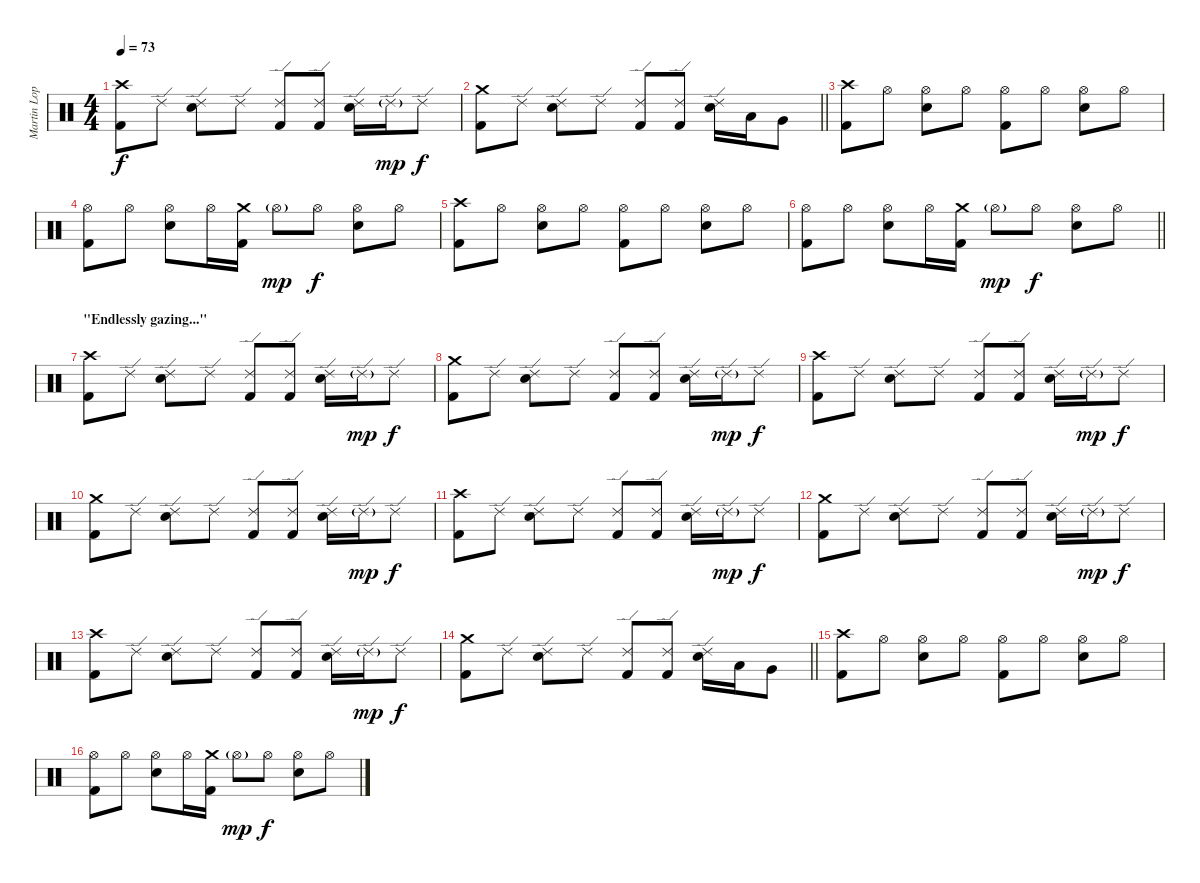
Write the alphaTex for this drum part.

\track ("Martin Lopez" "Martin Lop") {instrument percussion}
\staff {score}
\articulation defaults
\ts (4 4)
\tempo 73
\clef neutral
\ks c
("Crash high (hit)" "Kick (hit) 2").8{dy f} "Ride (edge) 2".8 ("Ride (edge) 2" "Electric Snare (hit)").8 "Ride (edge) 2".8 ("Ride (edge) 2" "Kick (hit) 2").8 ("Ride (edge) 2" "Kick (hit) 2").8 ("Ride (edge) 2" "Electric Snare (hit)").16 "Ride (edge) 2"{g}.16{dy mp} "Ride (edge) 2".8{dy f} |
\barLineRight lightlight
("Crash medium (hit)" "Kick (hit) 2").8 "Ride (edge) 2".8 ("Ride (edge) 2" "Electric Snare (hit)").8 "Ride (edge) 2".8 ("Ride (edge) 2" "Kick (hit) 2").8 ("Ride (edge) 2" "Kick (hit) 2").8 ("Ride (edge) 2" "Electric Snare (hit)").16 "Low Tom (hit)".16 "Very Low Tom (hit)".8 |
\section ("" "")
("Crash high (hit)" "Kick (hit) 2").8 "Hi-Hat (open)".8 ("Hi-Hat (open)" "Electric Snare (hit)").8 "Hi-Hat (open)".8 ("Hi-Hat (open)" "Kick (hit) 2").8 "Hi-Hat (open)".8 ("Hi-Hat (open)" "Electric Snare (hit)").8 "Hi-Hat (open)".8 |
("Hi-Hat (open)" "Kick (hit) 2").8 "Hi-Hat (open)".8 ("Hi-Hat (open)" "Electric Snare (hit)").8 "Hi-Hat (open)".16 ("Crash medium (hit)" "Kick (hit) 2").16 "Hi-Hat (open)"{g}.8{dy mp} "Hi-Hat (open)".8{dy f} ("Hi-Hat (open)" "Electric Snare (hit)").8 "Hi-Hat (open)".8 |
("Crash high (hit)" "Kick (hit) 2").8 "Hi-Hat (open)".8 ("Hi-Hat (open)" "Electric Snare (hit)").8 "Hi-Hat (open)".8 ("Hi-Hat (open)" "Kick (hit) 2").8 "Hi-Hat (open)".8 ("Hi-Hat (open)" "Electric Snare (hit)").8 "Hi-Hat (open)".8 |
\barLineRight lightlight
("Hi-Hat (open)" "Kick (hit) 2").8 "Hi-Hat (open)".8 ("Hi-Hat (open)" "Electric Snare (hit)").8 "Hi-Hat (open)".16 ("Crash medium (hit)" "Kick (hit) 2").16 "Hi-Hat (open)"{g}.8{dy mp} "Hi-Hat (open)".8{dy f} ("Hi-Hat (open)" "Electric Snare (hit)").8 "Hi-Hat (open)".8 |
\section ("" "\"Endlessly gazing...\"")
("Crash high (hit)" "Kick (hit) 2").8 "Ride (edge) 2".8 ("Ride (edge) 2" "Electric Snare (hit)").8 "Ride (edge) 2".8 ("Ride (edge) 2" "Kick (hit) 2").8 ("Ride (edge) 2" "Kick (hit) 2").8 ("Ride (edge) 2" "Electric Snare (hit)").16 "Ride (edge) 2"{g}.16{dy mp} "Ride (edge) 2".8{dy f} |
("Crash medium (hit)" "Kick (hit) 2").8 "Ride (edge) 2".8 ("Ride (edge) 2" "Electric Snare (hit)").8 "Ride (edge) 2".8 ("Ride (edge) 2" "Kick (hit) 2").8 ("Ride (edge) 2" "Kick (hit) 2").8 ("Ride (edge) 2" "Electric Snare (hit)").16 "Ride (edge) 2"{g}.16{dy mp} "Ride (edge) 2".8{dy f} |
("Crash high (hit)" "Kick (hit) 2").8 "Ride (edge) 2".8 ("Ride (edge) 2" "Electric Snare (hit)").8 "Ride (edge) 2".8 ("Ride (edge) 2" "Kick (hit) 2").8 ("Ride (edge) 2" "Kick (hit) 2").8 ("Ride (edge) 2" "Electric Snare (hit)").16 "Ride (edge) 2"{g}.16{dy mp} "Ride (edge) 2".8{dy f} |
("Crash medium (hit)" "Kick (hit) 2").8 "Ride (edge) 2".8 ("Ride (edge) 2" "Electric Snare (hit)").8 "Ride (edge) 2".8 ("Ride (edge) 2" "Kick (hit) 2").8 ("Ride (edge) 2" "Kick (hit) 2").8 ("Ride (edge) 2" "Electric Snare (hit)").16 "Ride (edge) 2"{g}.16{dy mp} "Ride (edge) 2".8{dy f} |
("Crash high (hit)" "Kick (hit) 2").8 "Ride (edge) 2".8 ("Ride (edge) 2" "Electric Snare (hit)").8 "Ride (edge) 2".8 ("Ride (edge) 2" "Kick (hit) 2").8 ("Ride (edge) 2" "Kick (hit) 2").8 ("Ride (edge) 2" "Electric Snare (hit)").16 "Ride (edge) 2"{g}.16{dy mp} "Ride (edge) 2".8{dy f} |
("Crash medium (hit)" "Kick (hit) 2").8 "Ride (edge) 2".8 ("Ride (edge) 2" "Electric Snare (hit)").8 "Ride (edge) 2".8 ("Ride (edge) 2" "Kick (hit) 2").8 ("Ride (edge) 2" "Kick (hit) 2").8 ("Ride (edge) 2" "Electric Snare (hit)").16 "Ride (edge) 2"{g}.16{dy mp} "Ride (edge) 2".8{dy f} |
("Crash high (hit)" "Kick (hit) 2").8 "Ride (edge) 2".8 ("Ride (edge) 2" "Electric Snare (hit)").8 "Ride (edge) 2".8 ("Ride (edge) 2" "Kick (hit) 2").8 ("Ride (edge) 2" "Kick (hit) 2").8 ("Ride (edge) 2" "Electric Snare (hit)").16 "Ride (edge) 2"{g}.16{dy mp} "Ride (edge) 2".8{dy f} |
\barLineRight lightlight
("Crash medium (hit)" "Kick (hit) 2").8 "Ride (edge) 2".8 ("Ride (edge) 2" "Electric Snare (hit)").8 "Ride (edge) 2".8 ("Ride (edge) 2" "Kick (hit) 2").8 ("Ride (edge) 2" "Kick (hit) 2").8 ("Ride (edge) 2" "Electric Snare (hit)").16 "Low Tom (hit)".16 "Very Low Tom (hit)".8 |
\section ("" "")
("Crash high (hit)" "Kick (hit) 2").8 "Hi-Hat (open)".8 ("Hi-Hat (open)" "Electric Snare (hit)").8 "Hi-Hat (open)".8 ("Hi-Hat (open)" "Kick (hit) 2").8 "Hi-Hat (open)".8 ("Hi-Hat (open)" "Electric Snare (hit)").8 "Hi-Hat (open)".8 |
("Hi-Hat (open)" "Kick (hit) 2").8 "Hi-Hat (open)".8 ("Hi-Hat (open)" "Electric Snare (hit)").8 "Hi-Hat (open)".16 ("Crash medium (hit)" "Kick (hit) 2").16 "Hi-Hat (open)"{g}.8{dy mp} "Hi-Hat (open)".8{dy f} ("Hi-Hat (open)" "Electric Snare (hit)").8 "Hi-Hat (open)".8
